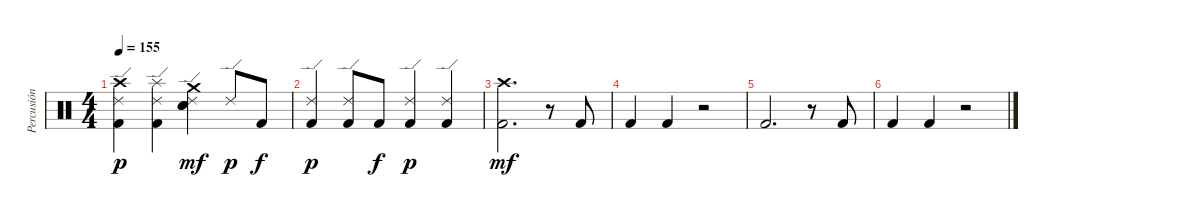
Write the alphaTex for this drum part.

\track ("Percusión" "Percusión") {instrument percussion}
\staff {score}
\articulation defaults
\ts (4 4)
\tempo 155
\clef neutral
\ks c
("Crash high (hit)" "Ride (edge) 2" "Kick (hit) 2").4{dy p} ("Splash (hit)" "Ride (edge) 2" "Kick (hit) 2").4 ("Crash medium (hit)" "Ride (edge) 2" "Electric Snare (hit)" "Hand Clap (hit)").4{dy mf} "Ride (edge) 2".8{dy p} "Kick (hit) 2".8{dy f} |
("Ride (edge) 2" "Kick (hit) 2").4{dy p} ("Ride (edge) 2" "Kick (hit) 2").8 "Kick (hit) 2".8{dy f} ("Ride (edge) 2" "Kick (hit) 2").4{dy p} ("Ride (edge) 2" "Kick (hit) 2").4 |
("Crash high (hit)" "Kick (hit) 2").2{d dy mf volume 0} r.8 "Kick (hit) 2".8 |
"Kick (hit) 2".4 "Kick (hit) 2".4 r.2 |
"Kick (hit) 2".2{d} r.8 "Kick (hit) 2".8 |
"Kick (hit) 2".4 "Kick (hit) 2".4 r.2
